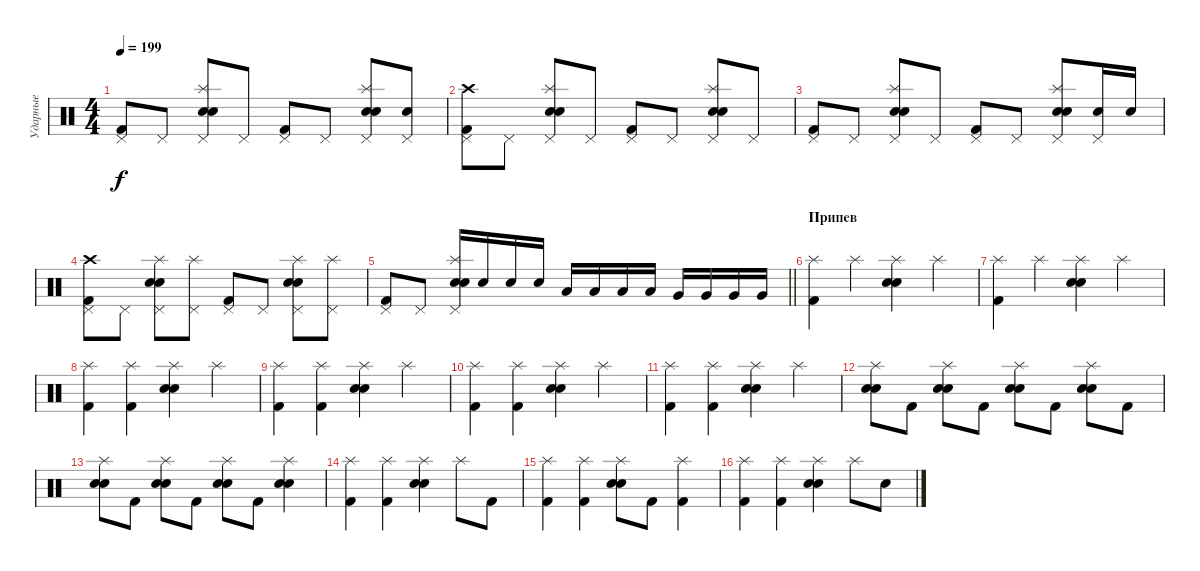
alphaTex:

\track ("Ударные" "Ударные") {instrument percussion}
\staff {score}
\articulation defaults
\ts (4 4)
\tempo 199
\clef neutral
\ks c
("Pedal Hi-Hat (hit)" "Kick (hit) 2").8{dy f} "Pedal Hi-Hat (hit)".8 ("Splash (hit)" "Pedal Hi-Hat (hit)" "Electric Snare (hit)" "Snare (hit) 2").8 "Pedal Hi-Hat (hit)".8 ("Pedal Hi-Hat (hit)" "Kick (hit) 2").8 "Pedal Hi-Hat (hit)".8 ("Splash (hit)" "Pedal Hi-Hat (hit)" "Electric Snare (hit)" "Snare (hit) 2").8 ("Pedal Hi-Hat (hit)" "Electric Snare (hit)").8 |
("Crash high (hit)" "Pedal Hi-Hat (hit)" "Kick (hit) 2").8 "Pedal Hi-Hat (hit)".8 ("Splash (hit)" "Pedal Hi-Hat (hit)" "Electric Snare (hit)" "Snare (hit) 2").8 "Pedal Hi-Hat (hit)".8 ("Pedal Hi-Hat (hit)" "Kick (hit) 2").8 "Pedal Hi-Hat (hit)".8 ("Splash (hit)" "Pedal Hi-Hat (hit)" "Electric Snare (hit)" "Snare (hit) 2").8 "Pedal Hi-Hat (hit)".8 |
("Pedal Hi-Hat (hit)" "Kick (hit) 2").8 "Pedal Hi-Hat (hit)".8 ("Splash (hit)" "Pedal Hi-Hat (hit)" "Electric Snare (hit)" "Snare (hit) 2").8 "Pedal Hi-Hat (hit)".8 ("Pedal Hi-Hat (hit)" "Kick (hit) 2").8 "Pedal Hi-Hat (hit)".8 ("Splash (hit)" "Pedal Hi-Hat (hit)" "Electric Snare (hit)" "Snare (hit) 2").8 ("Pedal Hi-Hat (hit)" "Electric Snare (hit)").16 "Electric Snare (hit)".16 |
("Crash high (hit)" "Pedal Hi-Hat (hit)" "Kick (hit) 2").8 "Pedal Hi-Hat (hit)".8 ("Splash (hit)" "Pedal Hi-Hat (hit)" "Electric Snare (hit)" "Snare (hit) 2").8 ("Splash (hit)" "Pedal Hi-Hat (hit)").8 ("Pedal Hi-Hat (hit)" "Kick (hit) 2").8 "Pedal Hi-Hat (hit)".8 ("Splash (hit)" "Pedal Hi-Hat (hit)" "Electric Snare (hit)" "Snare (hit) 2").8 ("Splash (hit)" "Pedal Hi-Hat (hit)").8 |
\barLineRight lightlight
("Pedal Hi-Hat (hit)" "Kick (hit) 2").8 "Pedal Hi-Hat (hit)".8 ("Splash (hit)" "Pedal Hi-Hat (hit)" "Electric Snare (hit)" "Snare (hit) 2").16 "Electric Snare (hit)".16 "Electric Snare (hit)".16 "Electric Snare (hit)".16 "Low Tom (hit)".16 "Low Tom (hit)".16 "Low Tom (hit)".16 "Low Tom (hit)".16 "Very Low Tom (hit)".16 "Very Low Tom (hit)".16 "Very Low Tom (hit)".16 "Very Low Tom (hit)".16 |
\section ("" "Припев")
("Splash (hit)" "Kick (hit) 2").4 "Splash (hit)".4 ("Splash (hit)" "Electric Snare (hit)" "Snare (hit) 2").4 "Splash (hit)".4 |
("Splash (hit)" "Kick (hit) 2").4 "Splash (hit)".4 ("Splash (hit)" "Electric Snare (hit)" "Snare (hit) 2").4 "Splash (hit)".4 |
("Splash (hit)" "Kick (hit) 2").4 ("Splash (hit)" "Kick (hit) 2").4 ("Splash (hit)" "Electric Snare (hit)" "Snare (hit) 2").4 "Splash (hit)".4 |
("Splash (hit)" "Kick (hit) 2").4 ("Splash (hit)" "Kick (hit) 2").4 ("Splash (hit)" "Electric Snare (hit)" "Snare (hit) 2").4 "Splash (hit)".4 |
("Splash (hit)" "Kick (hit) 2").4 ("Splash (hit)" "Kick (hit) 2").4 ("Splash (hit)" "Electric Snare (hit)" "Snare (hit) 2").4 "Splash (hit)".4 |
("Splash (hit)" "Kick (hit) 2").4 ("Splash (hit)" "Kick (hit) 2").4 ("Splash (hit)" "Electric Snare (hit)" "Snare (hit) 2").4 "Splash (hit)".4 |
("Splash (hit)" "Electric Snare (hit)" "Snare (hit) 2").8 "Kick (hit) 2".8 ("Splash (hit)" "Electric Snare (hit)" "Snare (hit) 2").8 "Kick (hit) 2".8 ("Splash (hit)" "Electric Snare (hit)" "Snare (hit) 2").8 "Kick (hit) 2".8 ("Splash (hit)" "Electric Snare (hit)" "Snare (hit) 2").8 "Kick (hit) 2".8 |
("Splash (hit)" "Electric Snare (hit)" "Snare (hit) 2").8 "Kick (hit) 2".8 ("Splash (hit)" "Electric Snare (hit)" "Snare (hit) 2").8 "Kick (hit) 2".8 ("Splash (hit)" "Electric Snare (hit)" "Snare (hit) 2").8 "Kick (hit) 2".8 ("Splash (hit)" "Electric Snare (hit)" "Snare (hit) 2").4 |
("Splash (hit)" "Kick (hit) 2").4 ("Splash (hit)" "Kick (hit) 2").4 ("Splash (hit)" "Electric Snare (hit)" "Snare (hit) 2").4 "Splash (hit)".8 "Kick (hit) 2".8 |
("Splash (hit)" "Kick (hit) 2").4 ("Splash (hit)" "Kick (hit) 2").4 ("Splash (hit)" "Electric Snare (hit)" "Snare (hit) 2").8 "Kick (hit) 2".8 ("Splash (hit)" "Kick (hit) 2").4 |
("Splash (hit)" "Kick (hit) 2").4 ("Splash (hit)" "Kick (hit) 2").4 ("Splash (hit)" "Electric Snare (hit)" "Snare (hit) 2").4 "Splash (hit)".8 "Electric Snare (hit)".8
